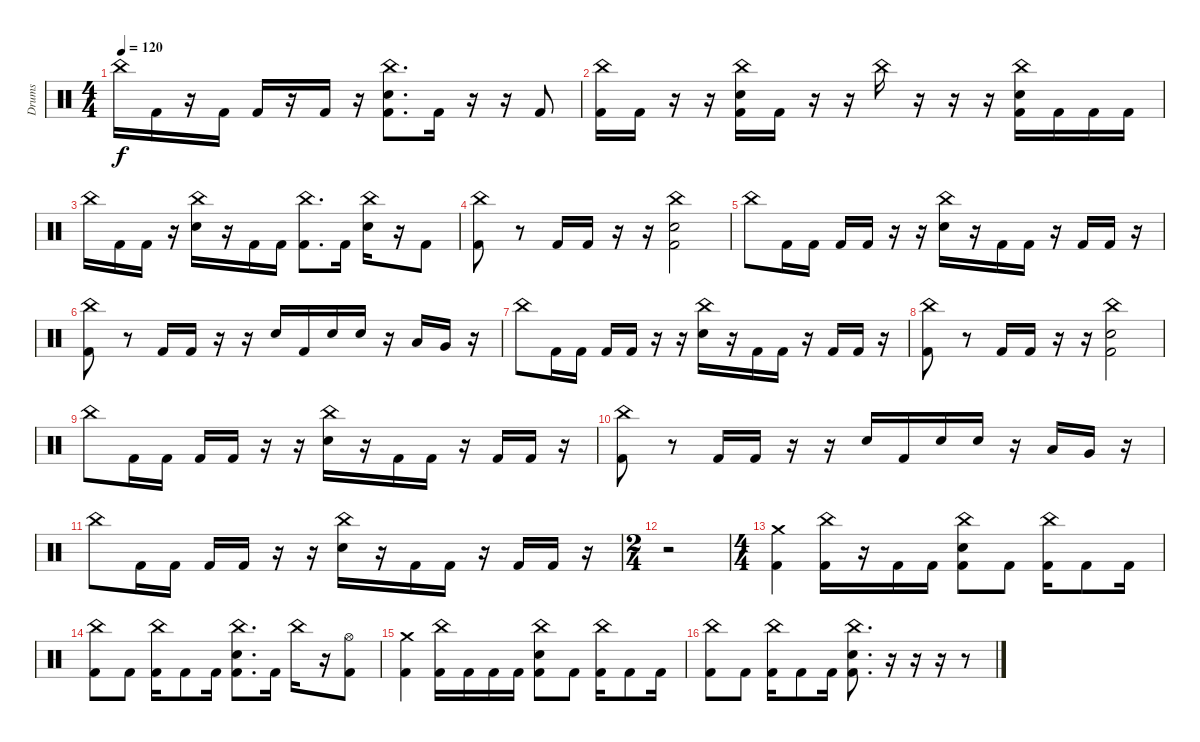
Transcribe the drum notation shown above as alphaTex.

\track ("Drums" "Drums") {instrument percussion}
\staff {score}
\articulation defaults
\ts (4 4)
\tempo 120
\clef neutral
\ks c "China (hit)".16{dy f} "Kick (hit) 2".16
r.16 "Kick (hit) 2".16 "Kick (hit) 2".16 r.16 "Kick (hit) 2".16 r.16 ("China (hit)" "Electric Snare (hit)" "Kick (hit) 2").8{d} "Kick (hit) 2".16 r.16 r.16 "Kick (hit) 2".8 |
("China (hit)" "Kick (hit) 2").16 "Kick (hit) 2".16 r.16 r.16 ("China (hit)" "Electric Snare (hit)" "Kick (hit) 2").16 "Kick (hit) 2".16 r.16 r.16 "China (hit)".16 r.16 r.16 r.16 ("China (hit)" "Electric Snare (hit)" "Kick (hit) 2").16 "Kick (hit) 2".16 "Kick (hit) 2".16 "Kick (hit) 2".16 |
"China (hit)".16 "Kick (hit) 2".16 "Kick (hit) 2".16 r.16 ("China (hit)" "Electric Snare (hit)").16 r.16 "Kick (hit) 2".16 "Kick (hit) 2".16 ("China (hit)" "Kick (hit) 2").8{d} "Kick (hit) 2".16 ("China (hit)" "Electric Snare (hit)").16 r.16 "Kick (hit) 2".8 |
("China (hit)" "Kick (hit) 2").8 r.8 "Kick (hit) 2".16 "Kick (hit) 2".16 r.16 r.16 ("China (hit)" "Electric Snare (hit)" "Kick (hit) 2").2 |
"China (hit)".8 "Kick (hit) 2".16 "Kick (hit) 2".16 "Kick (hit) 2".16 "Kick (hit) 2".16 r.16 r.16 ("China (hit)" "Electric Snare (hit)").16 r.16 "Kick (hit) 2".16 "Kick (hit) 2".16 r.16 "Kick (hit) 2".16 "Kick (hit) 2".16 r.16 |
("China (hit)" "Kick (hit) 2").8 r.8 "Kick (hit) 2".16 "Kick (hit) 2".16 r.16 r.16 "Electric Snare (hit)".16 "Kick (hit) 2".16 "Electric Snare (hit)".16 "Electric Snare (hit)".16 r.16 "Low Tom (hit)".16 "Very Low Tom (hit)".16 r.16 |
"China (hit)".8 "Kick (hit) 2".16 "Kick (hit) 2".16 "Kick (hit) 2".16 "Kick (hit) 2".16 r.16 r.16 ("China (hit)" "Electric Snare (hit)").16 r.16 "Kick (hit) 2".16 "Kick (hit) 2".16 r.16 "Kick (hit) 2".16 "Kick (hit) 2".16 r.16 |
("China (hit)" "Kick (hit) 2").8 r.8 "Kick (hit) 2".16 "Kick (hit) 2".16 r.16 r.16 ("China (hit)" "Electric Snare (hit)" "Kick (hit) 2").2 |
"China (hit)".8 "Kick (hit) 2".16 "Kick (hit) 2".16 "Kick (hit) 2".16 "Kick (hit) 2".16 r.16 r.16 ("China (hit)" "Electric Snare (hit)").16 r.16 "Kick (hit) 2".16 "Kick (hit) 2".16 r.16 "Kick (hit) 2".16 "Kick (hit) 2".16 r.16 |
("China (hit)" "Kick (hit) 2").8 r.8 "Kick (hit) 2".16 "Kick (hit) 2".16 r.16 r.16 "Electric Snare (hit)".16 "Kick (hit) 2".16 "Electric Snare (hit)".16 "Electric Snare (hit)".16 r.16 "Low Tom (hit)".16 "Very Low Tom (hit)".16 r.16 |
"China (hit)".8 "Kick (hit) 2".16 "Kick (hit) 2".16 "Kick (hit) 2".16 "Kick (hit) 2".16 r.16 r.16 ("China (hit)" "Electric Snare (hit)").16 r.16 "Kick (hit) 2".16 "Kick (hit) 2".16 r.16 "Kick (hit) 2".16 "Kick (hit) 2".16 r.16 |
\ts (2 4)
r.2 |
\ts (4 4)
("Crash medium (hit)" "Kick (hit) 2").4 ("China (hit)" "Kick (hit) 2").16 r.16 "Kick (hit) 2".16 "Kick (hit) 2".16 ("China (hit)" "Electric Snare (hit)" "Kick (hit) 2").8 "Kick (hit) 2".8 ("China (hit)" "Kick (hit) 2").16 "Kick (hit) 2".8 "Kick (hit) 2".16 |
("China (hit)" "Kick (hit) 2").8 "Kick (hit) 2".8 ("China (hit)" "Kick (hit) 2").16 "Kick (hit) 2".8 "Kick (hit) 2".16 ("China (hit)" "Electric Snare (hit)" "Kick (hit) 2").8{d} "Kick (hit) 2".16 "China (hit)".16 r.16 ("Hi-Hat (open)" "Kick (hit) 2").8 |
("Crash medium (hit)" "Kick (hit) 2").4 ("China (hit)" "Kick (hit) 2").16 "Kick (hit) 2".16 "Kick (hit) 2".16 "Kick (hit) 2".16 ("China (hit)" "Electric Snare (hit)" "Kick (hit) 2").8 "Kick (hit) 2".8 ("China (hit)" "Kick (hit) 2").16 "Kick (hit) 2".8 "Kick (hit) 2".16 |
("China (hit)" "Kick (hit) 2").8 "Kick (hit) 2".8 ("China (hit)" "Kick (hit) 2").16 "Kick (hit) 2".8 "Kick (hit) 2".16 ("China (hit)" "Electric Snare (hit)" "Kick (hit) 2").8{d} r.16 r.16 r.16 r.8
